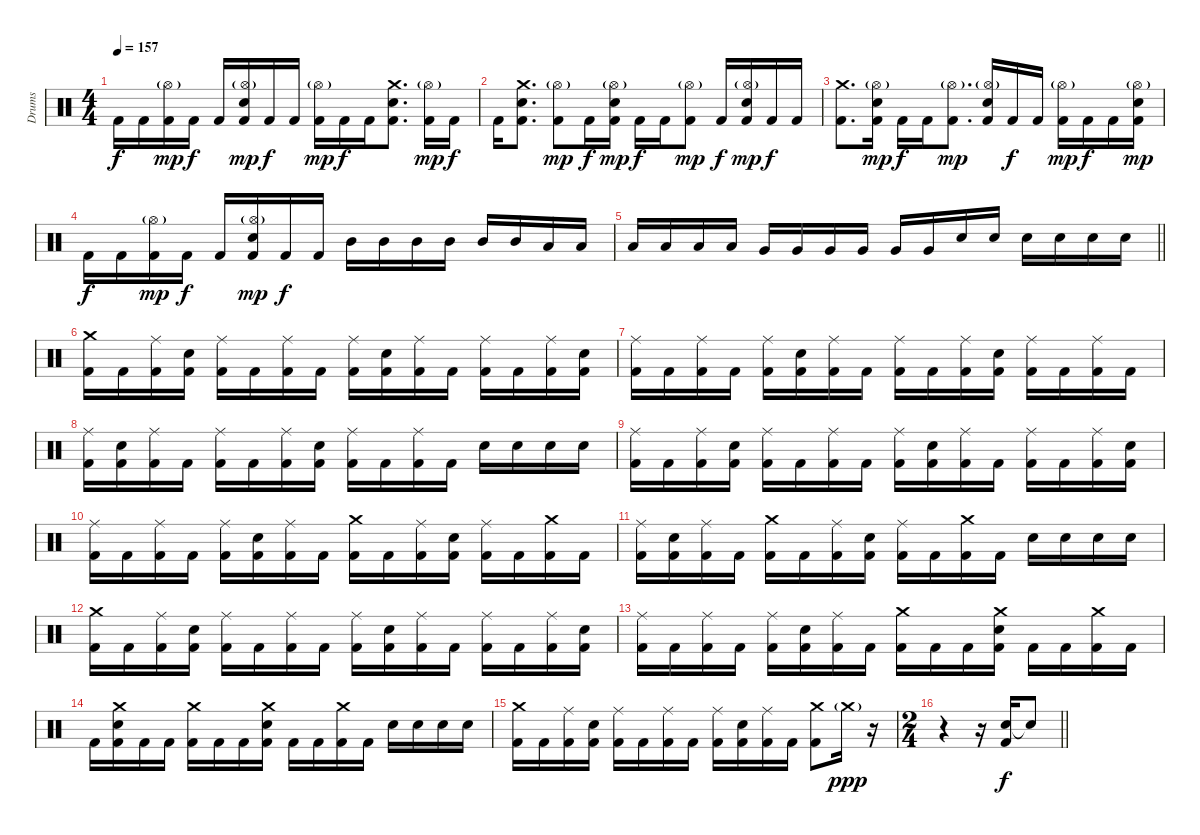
\track ("Drums" "Drums") {instrument percussion}
\staff {score}
\articulation defaults
\ts (4 4)
\tempo 157
\clef neutral
\ks c "Kick (hit) 2".16{dy f} "Kick (hit) 2".16
("Hi-Hat (open)"{g} "Kick (hit) 2").16{dy mp} "Kick (hit) 2".16{dy f} "Kick (hit) 2".16 ("Snare (hit) 2" "Hi-Hat (open)"{g} "Kick (hit) 2").16{dy mp} "Kick (hit) 2".16{dy f} "Kick (hit) 2".16 ("Hi-Hat (open)"{g} "Kick (hit) 2").16{dy mp} "Kick (hit) 2".16{dy f} "Kick (hit) 2".16 ("Crash medium (hit)" "Snare (hit) 2" "Kick (hit) 2").8{d} ("Hi-Hat (open)"{g} "Kick (hit) 2").16{dy mp} "Kick (hit) 2".16{dy f} |
"Kick (hit) 2".16 ("Crash medium (hit)" "Snare (hit) 2" "Kick (hit) 2").8{d} ("Hi-Hat (open)"{g} "Kick (hit) 2").8{dy mp} "Kick (hit) 2".16{dy f} ("Snare (hit) 2" "Hi-Hat (open)"{g} "Kick (hit) 2").16{dy mp} "Kick (hit) 2".16{dy f} "Kick (hit) 2".16 ("Hi-Hat (open)"{g} "Kick (hit) 2").8{dy mp} "Kick (hit) 2".16{dy f} ("Snare (hit) 2" "Hi-Hat (open)"{g} "Kick (hit) 2").16{dy mp} "Kick (hit) 2".16{dy f} "Kick (hit) 2".16 |
("Crash medium (hit)" "Kick (hit) 2").8{d} ("Snare (hit) 2" "Hi-Hat (open)"{g} "Kick (hit) 2").16{dy mp} "Kick (hit) 2".16{dy f} "Kick (hit) 2".16 ("Hi-Hat (open)"{g} "Kick (hit) 2").8{d dy mp} ("Snare (hit) 2" "Hi-Hat (open)"{g} "Kick (hit) 2").16 "Kick (hit) 2".16{dy f} "Kick (hit) 2".16 ("Hi-Hat (open)"{g} "Kick (hit) 2").16{dy mp} "Kick (hit) 2".16{dy f} "Kick (hit) 2".16 ("Snare (hit) 2" "Hi-Hat (open)"{g} "Kick (hit) 2").16{dy mp} |
"Kick (hit) 2".16{dy f} "Kick (hit) 2".16 ("Hi-Hat (open)"{g} "Kick (hit) 2").16{dy mp} "Kick (hit) 2".16{dy f} "Kick (hit) 2".16 ("Snare (hit) 2" "Hi-Hat (open)"{g} "Kick (hit) 2").16{dy mp} "Kick (hit) 2".16{dy f} "Kick (hit) 2".16 "Mid Tom (hit)".16 "Mid Tom (hit)".16 "Mid Tom (hit)".16 "Mid Tom (hit)".16 "Mid Tom (hit)".16 "Mid Tom (hit)".16 "Low Tom (hit)".16 "Low Tom (hit)".16 |
\barLineRight lightlight "Low Tom (hit)".16 "Low Tom (hit)".16 "Low Tom (hit)".16 "Low Tom (hit)".16 "Very Low Tom (hit)".16 "Very Low Tom (hit)".16 "Very Low Tom (hit)".16 "Very Low Tom (hit)".16 "Very Low Tom (hit)".16 "Very Low Tom (hit)".16 "Snare (hit) 2".16 "Snare (hit) 2".16 "Snare (hit) 2".16 "Snare (hit) 2".16 "Snare (hit) 2".16 "Snare (hit) 2".16
|
("Crash medium (hit)" "Kick (hit) 2").16 "Kick (hit) 2".16 ("Ride (middle)" "Kick (hit) 2").16 ("Snare (hit) 2" "Kick (hit) 2").16 ("Ride (middle)" "Kick (hit) 2").16 "Kick (hit) 2".16 ("Ride (middle)" "Kick (hit) 2").16 "Kick (hit) 2".16 ("Ride (middle)" "Kick (hit) 2").16 ("Snare (hit) 2" "Kick (hit) 2").16 ("Ride (middle)" "Kick (hit) 2").16 "Kick (hit) 2".16 ("Ride (middle)" "Kick (hit) 2").16 "Kick (hit) 2".16 ("Ride (middle)" "Kick (hit) 2").16 ("Snare (hit) 2" "Kick (hit) 2").16 |
("Ride (middle)" "Kick (hit) 2").16 "Kick (hit) 2".16 ("Ride (middle)" "Kick (hit) 2").16 "Kick (hit) 2".16 ("Ride (middle)" "Kick (hit) 2").16 ("Snare (hit) 2" "Kick (hit) 2").16 ("Ride (middle)" "Kick (hit) 2").16 "Kick (hit) 2".16 ("Ride (middle)" "Kick (hit) 2").16 "Kick (hit) 2".16 ("Ride (middle)" "Kick (hit) 2").16 ("Snare (hit) 2" "Kick (hit) 2").16 ("Ride (middle)" "Kick (hit) 2").16 "Kick (hit) 2".16 ("Ride (middle)" "Kick (hit) 2").16 "Kick (hit) 2".16 |
("Ride (middle)" "Kick (hit) 2").16 ("Snare (hit) 2" "Kick (hit) 2").16 ("Ride (middle)" "Kick (hit) 2").16 "Kick (hit) 2".16 ("Ride (middle)" "Kick (hit) 2").16 "Kick (hit) 2".16 ("Ride (middle)" "Kick (hit) 2").16 ("Snare (hit) 2" "Kick (hit) 2").16 ("Ride (middle)" "Kick (hit) 2").16 "Kick (hit) 2".16 ("Ride (middle)" "Kick (hit) 2").16 "Kick (hit) 2".16 "Snare (hit) 2".16 "Snare (hit) 2".16 "Snare (hit) 2".16 "Snare (hit) 2".16 |
("Ride (middle)" "Kick (hit) 2").16 "Kick (hit) 2".16 ("Ride (middle)" "Kick (hit) 2").16 ("Snare (hit) 2" "Kick (hit) 2").16 ("Ride (middle)" "Kick (hit) 2").16 "Kick (hit) 2".16 ("Ride (middle)" "Kick (hit) 2").16 "Kick (hit) 2".16 ("Ride (middle)" "Kick (hit) 2").16 ("Snare (hit) 2" "Kick (hit) 2").16 ("Ride (middle)" "Kick (hit) 2").16 "Kick (hit) 2".16 ("Ride (middle)" "Kick (hit) 2").16 "Kick (hit) 2".16 ("Ride (middle)" "Kick (hit) 2").16 ("Snare (hit) 2" "Kick (hit) 2").16 |
("Ride (middle)" "Kick (hit) 2").16 "Kick (hit) 2".16 ("Ride (middle)" "Kick (hit) 2").16 "Kick (hit) 2".16 ("Ride (middle)" "Kick (hit) 2").16 ("Snare (hit) 2" "Kick (hit) 2").16 ("Ride (middle)" "Kick (hit) 2").16 "Kick (hit) 2".16 ("Crash medium (hit)" "Kick (hit) 2").16 "Kick (hit) 2".16 ("Ride (middle)" "Kick (hit) 2").16 ("Snare (hit) 2" "Kick (hit) 2").16 ("Ride (middle)" "Kick (hit) 2").16 "Kick (hit) 2".16 ("Crash medium (hit)" "Kick (hit) 2").16 "Kick (hit) 2".16 |
("Ride (middle)" "Kick (hit) 2").16 ("Snare (hit) 2" "Kick (hit) 2").16 ("Ride (middle)" "Kick (hit) 2").16 "Kick (hit) 2".16 ("Crash medium (hit)" "Kick (hit) 2").16 "Kick (hit) 2".16 ("Ride (middle)" "Kick (hit) 2").16 ("Snare (hit) 2" "Kick (hit) 2").16 ("Ride (middle)" "Kick (hit) 2").16 "Kick (hit) 2".16 ("Crash medium (hit)" "Kick (hit) 2").16 "Kick (hit) 2".16 "Snare (hit) 2".16 "Snare (hit) 2".16 "Snare (hit) 2".16 "Snare (hit) 2".16 |
("Crash medium (hit)" "Kick (hit) 2").16 "Kick (hit) 2".16 ("Ride (middle)" "Kick (hit) 2").16 ("Snare (hit) 2" "Kick (hit) 2").16 ("Ride (middle)" "Kick (hit) 2").16 "Kick (hit) 2".16 ("Ride (middle)" "Kick (hit) 2").16 "Kick (hit) 2".16 ("Ride (middle)" "Kick (hit) 2").16 ("Snare (hit) 2" "Kick (hit) 2").16 ("Ride (middle)" "Kick (hit) 2").16 "Kick (hit) 2".16 ("Ride (middle)" "Kick (hit) 2").16 "Kick (hit) 2".16 ("Ride (middle)" "Kick (hit) 2").16 ("Snare (hit) 2" "Kick (hit) 2").16 |
("Ride (middle)" "Kick (hit) 2").16 "Kick (hit) 2".16 ("Ride (middle)" "Kick (hit) 2").16 "Kick (hit) 2".16 ("Ride (middle)" "Kick (hit) 2").16 ("Snare (hit) 2" "Kick (hit) 2").16 ("Ride (middle)" "Kick (hit) 2").16 "Kick (hit) 2".16 ("Crash medium (hit)" "Kick (hit) 2").16 "Kick (hit) 2".16 "Kick (hit) 2".16 ("Crash medium (hit)" "Snare (hit) 2" "Kick (hit) 2").16 "Kick (hit) 2".16 "Kick (hit) 2".16 ("Crash medium (hit)" "Kick (hit) 2").16 "Kick (hit) 2".16 |
"Kick (hit) 2".16 ("Crash medium (hit)" "Snare (hit) 2" "Kick (hit) 2").16 "Kick (hit) 2".16 "Kick (hit) 2".16 ("Crash medium (hit)" "Kick (hit) 2").16 "Kick (hit) 2".16 "Kick (hit) 2".16 ("Crash medium (hit)" "Snare (hit) 2" "Kick (hit) 2").16 "Kick (hit) 2".16 "Kick (hit) 2".16 ("Crash medium (hit)" "Kick (hit) 2").16 "Kick (hit) 2".16 "Snare (hit) 2".16 "Snare (hit) 2".16 "Snare (hit) 2".16 "Snare (hit) 2".16 |
("Crash medium (hit)" "Kick (hit) 2").16 "Kick (hit) 2".16 ("Ride (middle)" "Kick (hit) 2").16 ("Snare (hit) 2" "Kick (hit) 2").16 ("Ride (middle)" "Kick (hit) 2").16 "Kick (hit) 2".16 ("Ride (middle)" "Kick (hit) 2").16 "Kick (hit) 2".16 ("Ride (middle)" "Kick (hit) 2").16 ("Snare (hit) 2" "Kick (hit) 2").16 ("Ride (middle)" "Kick (hit) 2").16 "Kick (hit) 2".16 ("Crash medium (hit)" "Kick (hit) 2").8 "Crash medium (hit)"{g}.16{dy ppp} r.16 |
\ts (2 4)
\barLineRight lightlight
r.4 r.16 ("Snare (hit) 2" "Kick (hit) 2").16{dy f} "Snare (hit) 2"{t}.8
